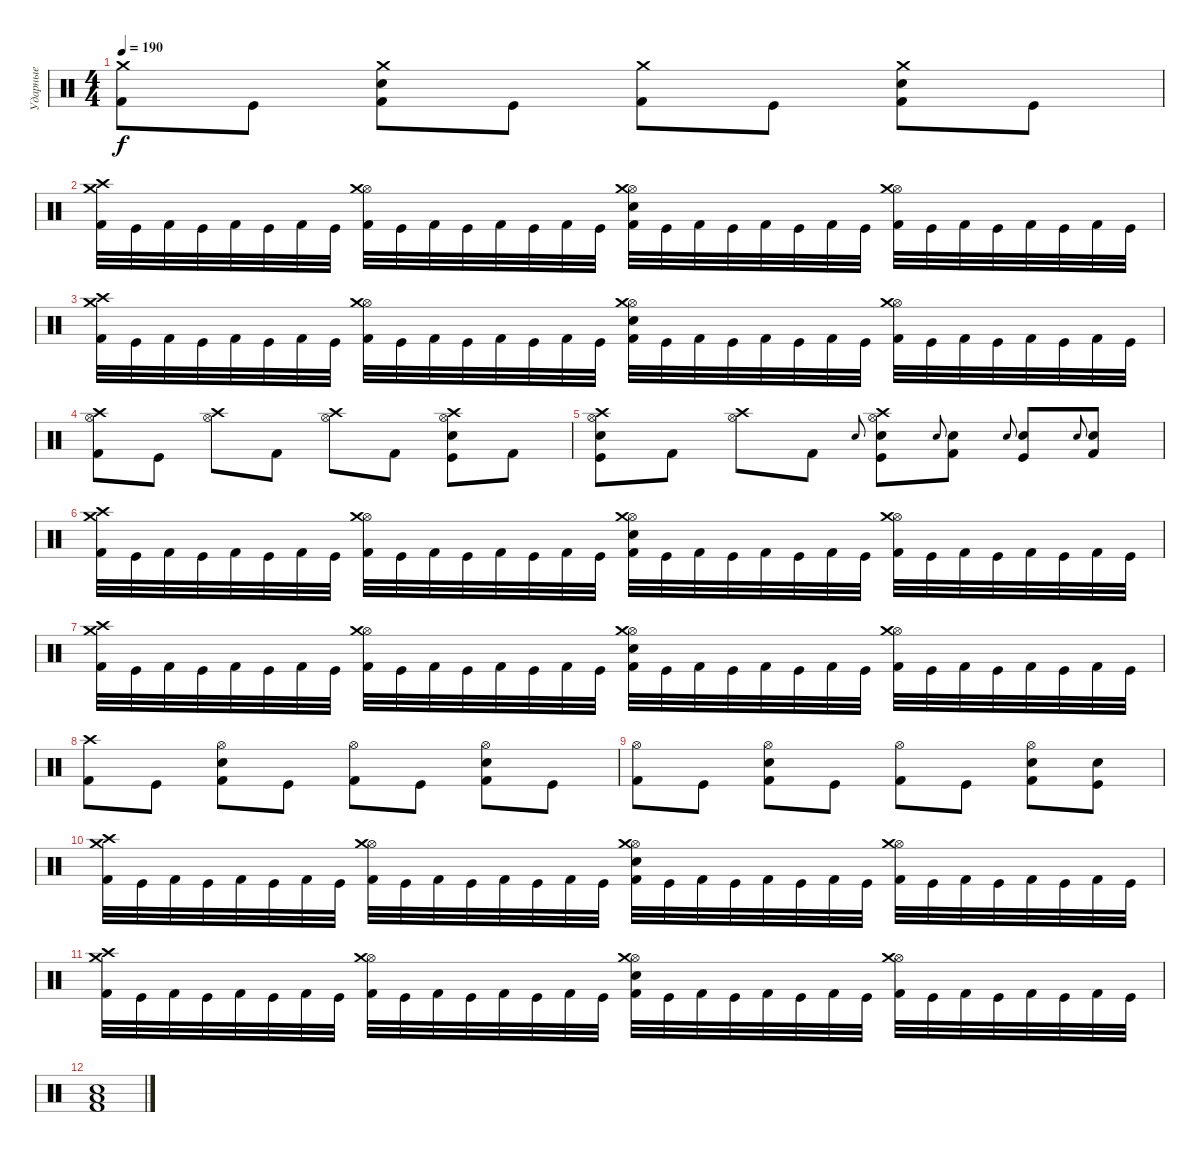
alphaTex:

\track ("Ударные" "Ударные") {instrument percussion}
\staff {score}
\articulation defaults
\ts (4 4)
\tempo 190
\clef neutral
\ks c
("Crash medium (hit)" "Kick (hit) 2").8{dy f} "Kick (hit)".8 ("Crash medium (hit)" "Electric Snare (hit)" "Kick (hit) 2").8 "Kick (hit)".8 ("Crash medium (hit)" "Kick (hit) 2").8 "Kick (hit)".8 ("Crash medium (hit)" "Electric Snare (hit)" "Kick (hit) 2").8 "Kick (hit)".8 |
("Crash high (hit)" "Crash medium (hit)" "Kick (hit) 2").32 "Kick (hit)".32 "Kick (hit) 2".32 "Kick (hit)".32 "Kick (hit) 2".32 "Kick (hit)".32 "Kick (hit) 2".32 "Kick (hit)".32 ("Hi-Hat (open)" "Crash medium (hit)" "Kick (hit) 2").32 "Kick (hit)".32 "Kick (hit) 2".32 "Kick (hit)".32 "Kick (hit) 2".32 "Kick (hit)".32 "Kick (hit) 2".32 "Kick (hit)".32 ("Hi-Hat (open)" "Crash medium (hit)" "Electric Snare (hit)" "Kick (hit) 2").32 "Kick (hit)".32 "Kick (hit) 2".32 "Kick (hit)".32 "Kick (hit) 2".32 "Kick (hit)".32 "Kick (hit) 2".32 "Kick (hit)".32 ("Hi-Hat (open)" "Crash medium (hit)" "Kick (hit) 2").32 "Kick (hit)".32 "Kick (hit) 2".32 "Kick (hit)".32 "Kick (hit) 2".32 "Kick (hit)".32 "Kick (hit) 2".32 "Kick (hit)".32 |
("Crash high (hit)" "Crash medium (hit)" "Kick (hit) 2").32 "Kick (hit)".32 "Kick (hit) 2".32 "Kick (hit)".32 "Kick (hit) 2".32 "Kick (hit)".32 "Kick (hit) 2".32 "Kick (hit)".32 ("Hi-Hat (open)" "Crash medium (hit)" "Kick (hit) 2").32 "Kick (hit)".32 "Kick (hit) 2".32 "Kick (hit)".32 "Kick (hit) 2".32 "Kick (hit)".32 "Kick (hit) 2".32 "Kick (hit)".32 ("Hi-Hat (open)" "Crash medium (hit)" "Electric Snare (hit)" "Kick (hit) 2").32 "Kick (hit)".32 "Kick (hit) 2".32 "Kick (hit)".32 "Kick (hit) 2".32 "Kick (hit)".32 "Kick (hit) 2".32 "Kick (hit)".32 ("Hi-Hat (open)" "Crash medium (hit)" "Kick (hit) 2").32 "Kick (hit)".32 "Kick (hit) 2".32 "Kick (hit)".32 "Kick (hit) 2".32 "Kick (hit)".32 "Kick (hit) 2".32 "Kick (hit)".32 |
("Hi-Hat (open)" "Crash high (hit)" "Kick (hit) 2").8 "Kick (hit)".8 ("Hi-Hat (open)" "Crash high (hit)").8 "Kick (hit) 2".8 ("Hi-Hat (open)" "Crash high (hit)").8 "Kick (hit) 2".8 ("Hi-Hat (open)" "Crash high (hit)" "Electric Snare (hit)" "Kick (hit)").8 "Kick (hit) 2".8 |
("Hi-Hat (open)" "Crash high (hit)" "Electric Snare (hit)" "Kick (hit)").8 "Kick (hit) 2".8 ("Hi-Hat (open)" "Crash high (hit)").8 "Kick (hit) 2".8 "Electric Snare (hit)"{x}.8{gr onbeat} ("Hi-Hat (open)" "Crash high (hit)" "Electric Snare (hit)" "Kick (hit)").8 "Electric Snare (hit)"{x}.8{gr onbeat} ("Electric Snare (hit)" "Kick (hit) 2").8 "Electric Snare (hit)"{x}.8{gr onbeat} ("Electric Snare (hit)" "Kick (hit)").8 "Electric Snare (hit)"{x}.8{gr onbeat} ("Electric Snare (hit)" "Kick (hit) 2").8 |
("Crash high (hit)" "Crash medium (hit)" "Kick (hit) 2").32 "Kick (hit)".32 "Kick (hit) 2".32 "Kick (hit)".32 "Kick (hit) 2".32 "Kick (hit)".32 "Kick (hit) 2".32 "Kick (hit)".32 ("Hi-Hat (open)" "Crash medium (hit)" "Kick (hit) 2").32 "Kick (hit)".32 "Kick (hit) 2".32 "Kick (hit)".32 "Kick (hit) 2".32 "Kick (hit)".32 "Kick (hit) 2".32 "Kick (hit)".32 ("Hi-Hat (open)" "Crash medium (hit)" "Electric Snare (hit)" "Kick (hit) 2").32 "Kick (hit)".32 "Kick (hit) 2".32 "Kick (hit)".32 "Kick (hit) 2".32 "Kick (hit)".32 "Kick (hit) 2".32 "Kick (hit)".32 ("Hi-Hat (open)" "Crash medium (hit)" "Kick (hit) 2").32 "Kick (hit)".32 "Kick (hit) 2".32 "Kick (hit)".32 "Kick (hit) 2".32 "Kick (hit)".32 "Kick (hit) 2".32 "Kick (hit)".32 |
("Crash high (hit)" "Crash medium (hit)" "Kick (hit) 2").32 "Kick (hit)".32 "Kick (hit) 2".32 "Kick (hit)".32 "Kick (hit) 2".32 "Kick (hit)".32 "Kick (hit) 2".32 "Kick (hit)".32 ("Hi-Hat (open)" "Crash medium (hit)" "Kick (hit) 2").32 "Kick (hit)".32 "Kick (hit) 2".32 "Kick (hit)".32 "Kick (hit) 2".32 "Kick (hit)".32 "Kick (hit) 2".32 "Kick (hit)".32 ("Hi-Hat (open)" "Crash medium (hit)" "Electric Snare (hit)" "Kick (hit) 2").32 "Kick (hit)".32 "Kick (hit) 2".32 "Kick (hit)".32 "Kick (hit) 2".32 "Kick (hit)".32 "Kick (hit) 2".32 "Kick (hit)".32 ("Hi-Hat (open)" "Crash medium (hit)" "Kick (hit) 2").32 "Kick (hit)".32 "Kick (hit) 2".32 "Kick (hit)".32 "Kick (hit) 2".32 "Kick (hit)".32 "Kick (hit) 2".32 "Kick (hit)".32 |
("Crash high (hit)" "Kick (hit) 2").8 "Kick (hit)".8 ("Hi-Hat (open)" "Electric Snare (hit)" "Kick (hit) 2").8 "Kick (hit)".8 ("Hi-Hat (open)" "Kick (hit) 2").8 "Kick (hit)".8 ("Hi-Hat (open)" "Electric Snare (hit)" "Kick (hit) 2").8 "Kick (hit)".8 |
("Hi-Hat (open)" "Kick (hit) 2").8 "Kick (hit)".8 ("Hi-Hat (open)" "Electric Snare (hit)" "Kick (hit) 2").8 "Kick (hit)".8 ("Hi-Hat (open)" "Kick (hit) 2").8 "Kick (hit)".8 ("Hi-Hat (open)" "Electric Snare (hit)" "Kick (hit) 2").8 ("Electric Snare (hit)" "Kick (hit)").8 |
("Crash high (hit)" "Crash medium (hit)" "Kick (hit) 2").32 "Kick (hit)".32 "Kick (hit) 2".32 "Kick (hit)".32 "Kick (hit) 2".32 "Kick (hit)".32 "Kick (hit) 2".32 "Kick (hit)".32 ("Hi-Hat (open)" "Crash medium (hit)" "Kick (hit) 2").32 "Kick (hit)".32 "Kick (hit) 2".32 "Kick (hit)".32 "Kick (hit) 2".32 "Kick (hit)".32 "Kick (hit) 2".32 "Kick (hit)".32 ("Hi-Hat (open)" "Crash medium (hit)" "Electric Snare (hit)" "Kick (hit) 2").32 "Kick (hit)".32 "Kick (hit) 2".32 "Kick (hit)".32 "Kick (hit) 2".32 "Kick (hit)".32 "Kick (hit) 2".32 "Kick (hit)".32 ("Hi-Hat (open)" "Crash medium (hit)" "Kick (hit) 2").32 "Kick (hit)".32 "Kick (hit) 2".32 "Kick (hit)".32 "Kick (hit) 2".32 "Kick (hit)".32 "Kick (hit) 2".32 "Kick (hit)".32 |
("Crash high (hit)" "Crash medium (hit)" "Kick (hit) 2").32 "Kick (hit)".32 "Kick (hit) 2".32 "Kick (hit)".32 "Kick (hit) 2".32 "Kick (hit)".32 "Kick (hit) 2".32 "Kick (hit)".32 ("Hi-Hat (open)" "Crash medium (hit)" "Kick (hit) 2").32 "Kick (hit)".32 "Kick (hit) 2".32 "Kick (hit)".32 "Kick (hit) 2".32 "Kick (hit)".32 "Kick (hit) 2".32 "Kick (hit)".32 ("Hi-Hat (open)" "Crash medium (hit)" "Electric Snare (hit)" "Kick (hit) 2").32 "Kick (hit)".32 "Kick (hit) 2".32 "Kick (hit)".32 "Kick (hit) 2".32 "Kick (hit)".32 "Kick (hit) 2".32 "Kick (hit)".32 ("Hi-Hat (open)" "Crash medium (hit)" "Kick (hit) 2").32 "Kick (hit)".32 "Kick (hit) 2".32 "Kick (hit)".32 "Kick (hit) 2".32 "Kick (hit)".32 "Kick (hit) 2".32 "Kick (hit)".32 |
("Electric Snare (hit)" "Low Tom (hit)" "Kick (hit) 2").1
